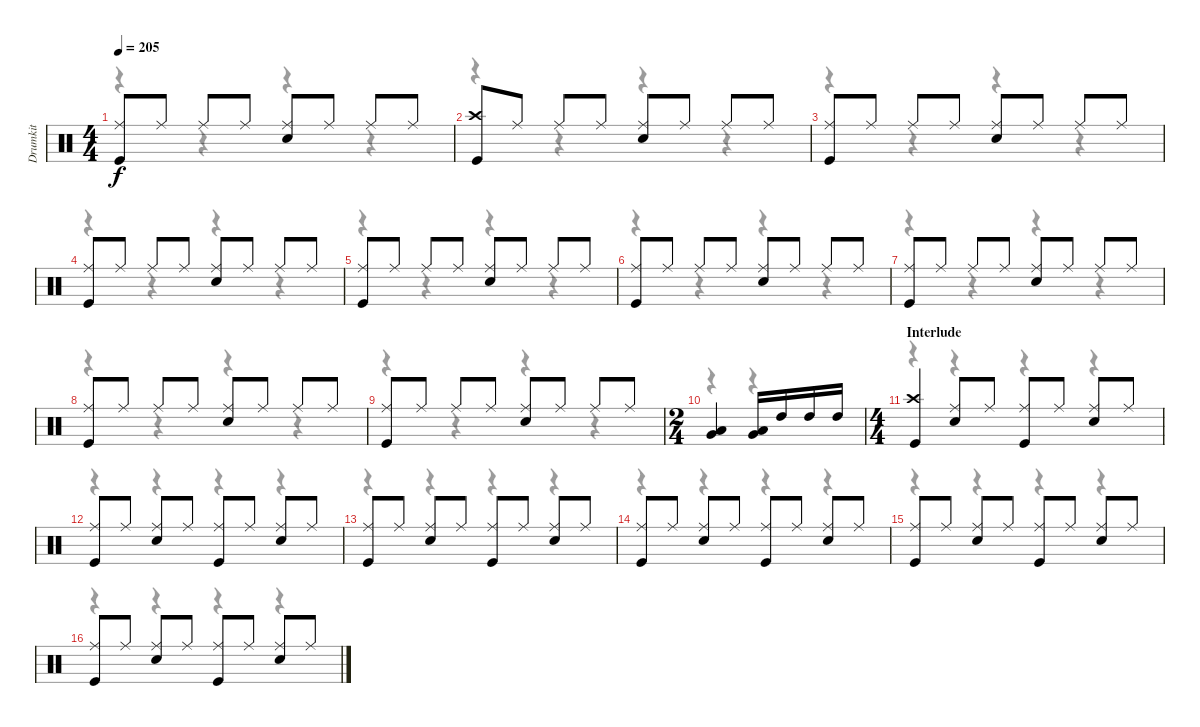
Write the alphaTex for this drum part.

\track ("Drumkit" "Drumkit") {instrument percussion}
\staff {score}
\articulation defaults
\voice
\ts (4 4)
\tempo 205
\clef neutral
\ks c
("Ride (middle)" "Kick (hit)").8{dy f} "Ride (middle)".8 "Ride (middle)".8 "Ride (middle)".8 ("Ride (middle)" "Snare (hit) 2").8 "Ride (middle)".8 "Ride (middle)".8 "Ride (middle)".8 |
("Crash high (hit)" "Kick (hit)").8 "Ride (middle)".8 "Ride (middle)".8 "Ride (middle)".8 ("Ride (middle)" "Snare (hit) 2").8 "Ride (middle)".8 "Ride (middle)".8 "Ride (middle)".8 |
("Ride (middle)" "Kick (hit)").8 "Ride (middle)".8 "Ride (middle)".8 "Ride (middle)".8 ("Ride (middle)" "Snare (hit) 2").8 "Ride (middle)".8 "Ride (middle)".8 "Ride (middle)".8 |
("Ride (middle)" "Kick (hit)").8 "Ride (middle)".8 "Ride (middle)".8 "Ride (middle)".8 ("Ride (middle)" "Snare (hit) 2").8 "Ride (middle)".8 "Ride (middle)".8 "Ride (middle)".8 |
("Ride (middle)" "Kick (hit)").8 "Ride (middle)".8 "Ride (middle)".8 "Ride (middle)".8 ("Ride (middle)" "Snare (hit) 2").8 "Ride (middle)".8 "Ride (middle)".8 "Ride (middle)".8 |
("Ride (middle)" "Kick (hit)").8 "Ride (middle)".8 "Ride (middle)".8 "Ride (middle)".8 ("Ride (middle)" "Snare (hit) 2").8 "Ride (middle)".8 "Ride (middle)".8 "Ride (middle)".8 |
("Ride (middle)" "Kick (hit)").8 "Ride (middle)".8 "Ride (middle)".8 "Ride (middle)".8 ("Ride (middle)" "Snare (hit) 2").8 "Ride (middle)".8 "Ride (middle)".8 "Ride (middle)".8 |
("Ride (middle)" "Kick (hit)").8 "Ride (middle)".8 "Ride (middle)".8 "Ride (middle)".8 ("Ride (middle)" "Snare (hit) 2").8 "Ride (middle)".8 "Ride (middle)".8 "Ride (middle)".8 |
("Ride (middle)" "Kick (hit)").8 "Ride (middle)".8 "Ride (middle)".8 "Ride (middle)".8 ("Ride (middle)" "Snare (hit) 2").8 "Ride (middle)".8 "Ride (middle)".8 "Ride (middle)".8 |
\ts (2 4)
("Very Low Tom (hit)" "Low Floor Tom (hit)").4 ("Very Low Tom (hit)" "Low Floor Tom (hit)").16 "High Tom (hit)".16 "High Tom (hit)".16 "High Tom (hit)".16 |
\ts (4 4)
\section ("" "Interlude")
("Crash high (hit)" "Kick (hit)").4 ("Ride (middle)" "Snare (hit) 2").8 "Ride (middle)".8 ("Ride (middle)" "Kick (hit)").8 "Ride (middle)".8 ("Ride (middle)" "Snare (hit) 2").8 "Ride (middle)".8 |
("Ride (middle)" "Kick (hit)").8 "Ride (middle)".8 ("Ride (middle)" "Snare (hit) 2").8 "Ride (middle)".8 ("Ride (middle)" "Kick (hit)").8 "Ride (middle)".8 ("Ride (middle)" "Snare (hit) 2").8 "Ride (middle)".8 |
("Ride (middle)" "Kick (hit)").8 "Ride (middle)".8 ("Ride (middle)" "Snare (hit) 2").8 "Ride (middle)".8 ("Ride (middle)" "Kick (hit)").8 "Ride (middle)".8 ("Ride (middle)" "Snare (hit) 2").8 "Ride (middle)".8 |
("Ride (middle)" "Kick (hit)").8 "Ride (middle)".8 ("Ride (middle)" "Snare (hit) 2").8 "Ride (middle)".8 ("Ride (middle)" "Kick (hit)").8 "Ride (middle)".8 ("Ride (middle)" "Snare (hit) 2").8 "Ride (middle)".8 |
("Ride (middle)" "Kick (hit)").8 "Ride (middle)".8 ("Ride (middle)" "Snare (hit) 2").8 "Ride (middle)".8 ("Ride (middle)" "Kick (hit)").8 "Ride (middle)".8 ("Ride (middle)" "Snare (hit) 2").8 "Ride (middle)".8 |
("Ride (middle)" "Kick (hit)").8 "Ride (middle)".8 ("Ride (middle)" "Snare (hit) 2").8 "Ride (middle)".8 ("Ride (middle)" "Kick (hit)").8 "Ride (middle)".8 ("Ride (middle)" "Snare (hit) 2").8 "Ride (middle)".8
\voice
\clef neutral
\ottava regular
\simile none
\ks c
r.4{dy f} r.4 r.4 r.4 |
r.4 r.4 r.4 r.4 |
r.4 r.4 r.4 r.4 |
r.4 r.4 r.4 r.4 |
r.4 r.4 r.4 r.4 |
r.4 r.4 r.4 r.4 |
r.4 r.4 r.4 r.4 |
r.4 r.4 r.4 r.4 |
r.4 r.4 r.4 r.4 |
r.4 r.4 |
r.4 r.4 r.4 r.4 |
r.4 r.4 r.4 r.4 |
r.4 r.4 r.4 r.4 |
r.4 r.4 r.4 r.4 |
r.4 r.4 r.4 r.4 |
r.4 r.4 r.4 r.4
